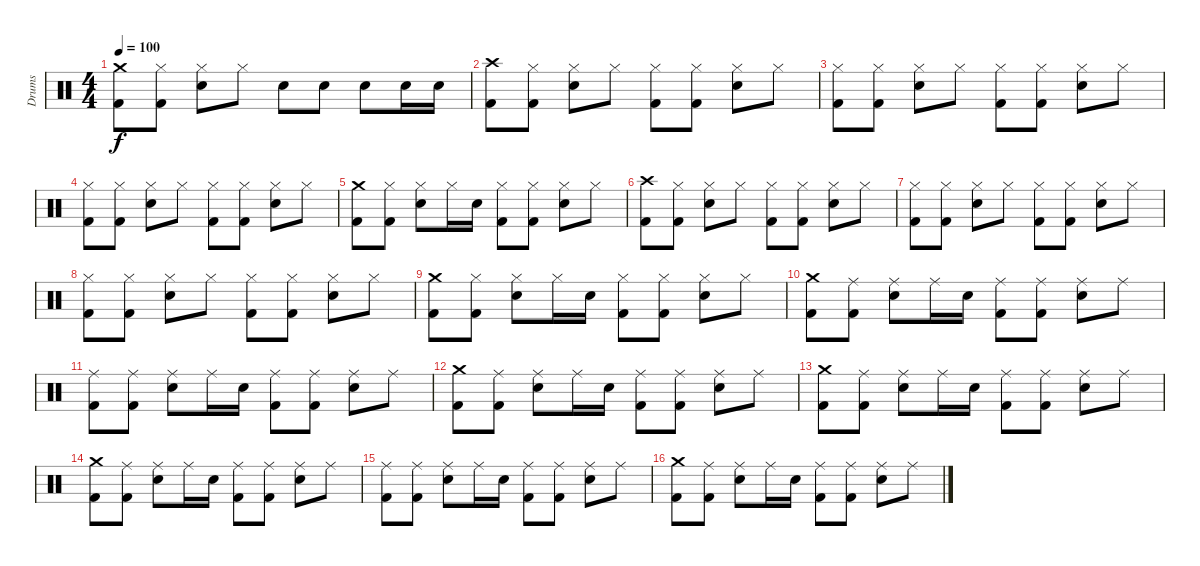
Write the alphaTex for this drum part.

\track ("Drums" "Drums") {instrument percussion}
\staff {score}
\articulation defaults
\ts (4 4)
\tempo 100
\clef neutral
\ks c
("Crash medium (hit)" "Kick (hit) 2").8{dy f} ("Hi-Hat (closed)" "Kick (hit) 2").8 ("Hi-Hat (closed)" "Electric Snare (hit)").8 "Hi-Hat (closed)".8 "Electric Snare (hit)".8 "Electric Snare (hit)".8 "Electric Snare (hit)".8 "Electric Snare (hit)".16 "Electric Snare (hit)".16 |
("Crash high (hit)" "Kick (hit) 2").8 ("Hi-Hat (closed)" "Kick (hit) 2").8 ("Hi-Hat (closed)" "Electric Snare (hit)").8 "Hi-Hat (closed)".8 ("Hi-Hat (closed)" "Kick (hit) 2").8 ("Hi-Hat (closed)" "Kick (hit) 2").8 ("Hi-Hat (closed)" "Electric Snare (hit)").8 "Hi-Hat (closed)".8 |
("Hi-Hat (closed)" "Kick (hit) 2").8 ("Hi-Hat (closed)" "Kick (hit) 2").8 ("Hi-Hat (closed)" "Electric Snare (hit)").8 "Hi-Hat (closed)".8 ("Hi-Hat (closed)" "Kick (hit) 2").8 ("Hi-Hat (closed)" "Kick (hit) 2").8 ("Hi-Hat (closed)" "Electric Snare (hit)").8 "Hi-Hat (closed)".8 |
("Hi-Hat (closed)" "Kick (hit) 2").8 ("Hi-Hat (closed)" "Kick (hit) 2").8 ("Hi-Hat (closed)" "Electric Snare (hit)").8 "Hi-Hat (closed)".8 ("Hi-Hat (closed)" "Kick (hit) 2").8 ("Hi-Hat (closed)" "Kick (hit) 2").8 ("Hi-Hat (closed)" "Electric Snare (hit)").8 "Hi-Hat (closed)".8 |
("Crash medium (hit)" "Kick (hit) 2").8 ("Hi-Hat (closed)" "Kick (hit) 2").8 ("Hi-Hat (closed)" "Electric Snare (hit)").8 "Hi-Hat (closed)".16 "Electric Snare (hit)".16 ("Hi-Hat (closed)" "Kick (hit) 2").8 ("Hi-Hat (closed)" "Kick (hit) 2").8 ("Hi-Hat (closed)" "Electric Snare (hit)").8 "Hi-Hat (closed)".8 |
("Crash high (hit)" "Kick (hit) 2").8 ("Hi-Hat (closed)" "Kick (hit) 2").8 ("Hi-Hat (closed)" "Electric Snare (hit)").8 "Hi-Hat (closed)".8 ("Hi-Hat (closed)" "Kick (hit) 2").8 ("Hi-Hat (closed)" "Kick (hit) 2").8 ("Hi-Hat (closed)" "Electric Snare (hit)").8 "Hi-Hat (closed)".8 |
("Hi-Hat (closed)" "Kick (hit) 2").8 ("Hi-Hat (closed)" "Kick (hit) 2").8 ("Hi-Hat (closed)" "Electric Snare (hit)").8 "Hi-Hat (closed)".8 ("Hi-Hat (closed)" "Kick (hit) 2").8 ("Hi-Hat (closed)" "Kick (hit) 2").8 ("Hi-Hat (closed)" "Electric Snare (hit)").8 "Hi-Hat (closed)".8 |
("Hi-Hat (closed)" "Kick (hit) 2").8 ("Hi-Hat (closed)" "Kick (hit) 2").8 ("Hi-Hat (closed)" "Electric Snare (hit)").8 "Hi-Hat (closed)".8 ("Hi-Hat (closed)" "Kick (hit) 2").8 ("Hi-Hat (closed)" "Kick (hit) 2").8 ("Hi-Hat (closed)" "Electric Snare (hit)").8 "Hi-Hat (closed)".8 |
("Crash medium (hit)" "Kick (hit) 2").8 ("Hi-Hat (closed)" "Kick (hit) 2").8 ("Hi-Hat (closed)" "Electric Snare (hit)").8 "Hi-Hat (closed)".16 "Electric Snare (hit)".16 ("Hi-Hat (closed)" "Kick (hit) 2").8 ("Hi-Hat (closed)" "Kick (hit) 2").8 ("Hi-Hat (closed)" "Electric Snare (hit)").8 "Hi-Hat (closed)".8 |
("Crash medium (hit)" "Kick (hit) 2").8 ("Ride (middle)" "Kick (hit) 2").8 ("Ride (middle)" "Electric Snare (hit)").8 "Ride (middle)".16 "Electric Snare (hit)".16 ("Ride (middle)" "Kick (hit) 2").8 ("Ride (middle)" "Kick (hit) 2").8 ("Ride (middle)" "Electric Snare (hit)").8 "Ride (middle)".8 |
("Ride (middle)" "Kick (hit) 2").8 ("Ride (middle)" "Kick (hit) 2").8 ("Ride (middle)" "Electric Snare (hit)").8 "Ride (middle)".16 "Electric Snare (hit)".16 ("Ride (middle)" "Kick (hit) 2").8 ("Ride (middle)" "Kick (hit) 2").8 ("Ride (middle)" "Electric Snare (hit)").8 "Ride (middle)".8 |
("Crash medium (hit)" "Kick (hit) 2").8 ("Ride (middle)" "Kick (hit) 2").8 ("Ride (middle)" "Electric Snare (hit)").8 "Ride (middle)".16 "Electric Snare (hit)".16 ("Ride (middle)" "Kick (hit) 2").8 ("Ride (middle)" "Kick (hit) 2").8 ("Ride (middle)" "Electric Snare (hit)").8 "Ride (middle)".8 |
("Crash medium (hit)" "Kick (hit) 2").8 ("Ride (middle)" "Kick (hit) 2").8 ("Ride (middle)" "Electric Snare (hit)").8 "Ride (middle)".16 "Electric Snare (hit)".16 ("Ride (middle)" "Kick (hit) 2").8 ("Ride (middle)" "Kick (hit) 2").8 ("Ride (middle)" "Electric Snare (hit)").8 "Ride (middle)".8 |
("Crash medium (hit)" "Kick (hit) 2").8 ("Ride (middle)" "Kick (hit) 2").8 ("Ride (middle)" "Electric Snare (hit)").8 "Ride (middle)".16 "Electric Snare (hit)".16 ("Ride (middle)" "Kick (hit) 2").8 ("Ride (middle)" "Kick (hit) 2").8 ("Ride (middle)" "Electric Snare (hit)").8 "Ride (middle)".8 |
("Ride (middle)" "Kick (hit) 2").8 ("Ride (middle)" "Kick (hit) 2").8 ("Ride (middle)" "Electric Snare (hit)").8 "Ride (middle)".16 "Electric Snare (hit)".16 ("Ride (middle)" "Kick (hit) 2").8 ("Ride (middle)" "Kick (hit) 2").8 ("Ride (middle)" "Electric Snare (hit)").8 "Ride (middle)".8 |
("Crash medium (hit)" "Kick (hit) 2").8 ("Ride (middle)" "Kick (hit) 2").8 ("Ride (middle)" "Electric Snare (hit)").8 "Ride (middle)".16 "Electric Snare (hit)".16 ("Ride (middle)" "Kick (hit) 2").8 ("Ride (middle)" "Kick (hit) 2").8 ("Ride (middle)" "Electric Snare (hit)").8 "Ride (middle)".8
